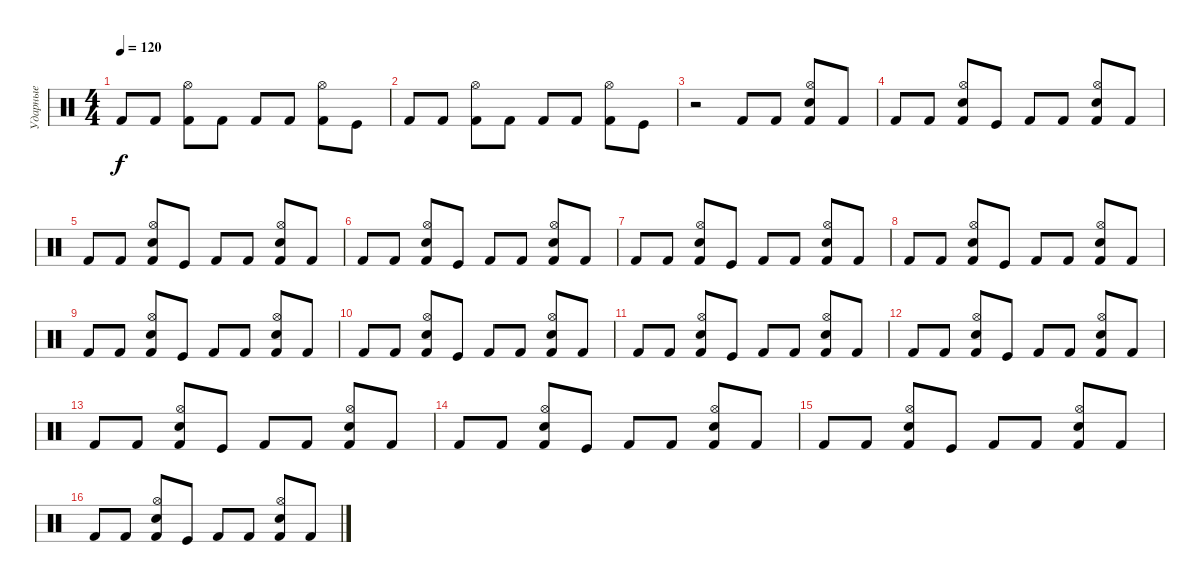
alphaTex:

\track ("Ударные" "Ударные") {instrument percussion}
\staff {score}
\articulation defaults
\ts (4 4)
\tempo 120
\clef neutral
\ks c "Kick (hit) 2".8{dy f} "Kick (hit) 2".8
("Kick (hit) 2" "Hi-Hat (open)").8 "Kick (hit) 2".8 "Kick (hit) 2".8 "Kick (hit) 2".8 ("Kick (hit) 2" "Hi-Hat (open)").8 "Kick (hit)".8 |
"Kick (hit) 2".8 "Kick (hit) 2".8 ("Kick (hit) 2" "Hi-Hat (open)").8 "Kick (hit) 2".8 "Kick (hit) 2".8 "Kick (hit) 2".8 ("Kick (hit) 2" "Hi-Hat (open)").8 "Kick (hit)".8 |
r.2 "Kick (hit) 2".8 "Kick (hit) 2".8 ("Kick (hit) 2" "Hi-Hat (open)" "Snare (hit) 2").8 "Kick (hit) 2".8 |
"Kick (hit) 2".8 "Kick (hit) 2".8 ("Kick (hit) 2" "Hi-Hat (open)" "Snare (hit) 2").8 "Kick (hit)".8 "Kick (hit) 2".8 "Kick (hit) 2".8 ("Kick (hit) 2" "Hi-Hat (open)" "Snare (hit) 2").8 "Kick (hit) 2".8 |
"Kick (hit) 2".8 "Kick (hit) 2".8 ("Kick (hit) 2" "Hi-Hat (open)" "Snare (hit) 2").8 "Kick (hit)".8 "Kick (hit) 2".8 "Kick (hit) 2".8 ("Kick (hit) 2" "Hi-Hat (open)" "Snare (hit) 2").8 "Kick (hit) 2".8 |
"Kick (hit) 2".8 "Kick (hit) 2".8 ("Kick (hit) 2" "Hi-Hat (open)" "Snare (hit) 2").8 "Kick (hit)".8 "Kick (hit) 2".8 "Kick (hit) 2".8 ("Kick (hit) 2" "Hi-Hat (open)" "Snare (hit) 2").8 "Kick (hit) 2".8 |
"Kick (hit) 2".8 "Kick (hit) 2".8 ("Kick (hit) 2" "Hi-Hat (open)" "Snare (hit) 2").8 "Kick (hit)".8 "Kick (hit) 2".8 "Kick (hit) 2".8 ("Kick (hit) 2" "Hi-Hat (open)" "Snare (hit) 2").8 "Kick (hit) 2".8 |
"Kick (hit) 2".8 "Kick (hit) 2".8 ("Kick (hit) 2" "Hi-Hat (open)" "Snare (hit) 2").8 "Kick (hit)".8 "Kick (hit) 2".8 "Kick (hit) 2".8 ("Kick (hit) 2" "Hi-Hat (open)" "Snare (hit) 2").8 "Kick (hit) 2".8 |
"Kick (hit) 2".8 "Kick (hit) 2".8 ("Kick (hit) 2" "Hi-Hat (open)" "Snare (hit) 2").8 "Kick (hit)".8 "Kick (hit) 2".8 "Kick (hit) 2".8 ("Kick (hit) 2" "Hi-Hat (open)" "Snare (hit) 2").8 "Kick (hit) 2".8 |
"Kick (hit) 2".8 "Kick (hit) 2".8 ("Kick (hit) 2" "Hi-Hat (open)" "Snare (hit) 2").8 "Kick (hit)".8 "Kick (hit) 2".8 "Kick (hit) 2".8 ("Kick (hit) 2" "Hi-Hat (open)" "Snare (hit) 2").8 "Kick (hit) 2".8 |
"Kick (hit) 2".8 "Kick (hit) 2".8 ("Kick (hit) 2" "Hi-Hat (open)" "Snare (hit) 2").8 "Kick (hit)".8 "Kick (hit) 2".8 "Kick (hit) 2".8 ("Kick (hit) 2" "Hi-Hat (open)" "Snare (hit) 2").8 "Kick (hit) 2".8 |
"Kick (hit) 2".8 "Kick (hit) 2".8 ("Kick (hit) 2" "Hi-Hat (open)" "Snare (hit) 2").8 "Kick (hit)".8 "Kick (hit) 2".8 "Kick (hit) 2".8 ("Kick (hit) 2" "Hi-Hat (open)" "Snare (hit) 2").8 "Kick (hit) 2".8 |
"Kick (hit) 2".8 "Kick (hit) 2".8 ("Kick (hit) 2" "Hi-Hat (open)" "Snare (hit) 2").8 "Kick (hit)".8 "Kick (hit) 2".8 "Kick (hit) 2".8 ("Kick (hit) 2" "Hi-Hat (open)" "Snare (hit) 2").8 "Kick (hit) 2".8 |
"Kick (hit) 2".8 "Kick (hit) 2".8 ("Kick (hit) 2" "Hi-Hat (open)" "Snare (hit) 2").8 "Kick (hit)".8 "Kick (hit) 2".8 "Kick (hit) 2".8 ("Kick (hit) 2" "Hi-Hat (open)" "Snare (hit) 2").8 "Kick (hit) 2".8 |
"Kick (hit) 2".8 "Kick (hit) 2".8 ("Kick (hit) 2" "Hi-Hat (open)" "Snare (hit) 2").8 "Kick (hit)".8 "Kick (hit) 2".8 "Kick (hit) 2".8 ("Kick (hit) 2" "Hi-Hat (open)" "Snare (hit) 2").8 "Kick (hit) 2".8 |
"Kick (hit) 2".8 "Kick (hit) 2".8 ("Kick (hit) 2" "Hi-Hat (open)" "Snare (hit) 2").8 "Kick (hit)".8 "Kick (hit) 2".8 "Kick (hit) 2".8 ("Kick (hit) 2" "Hi-Hat (open)" "Snare (hit) 2").8 "Kick (hit) 2".8
